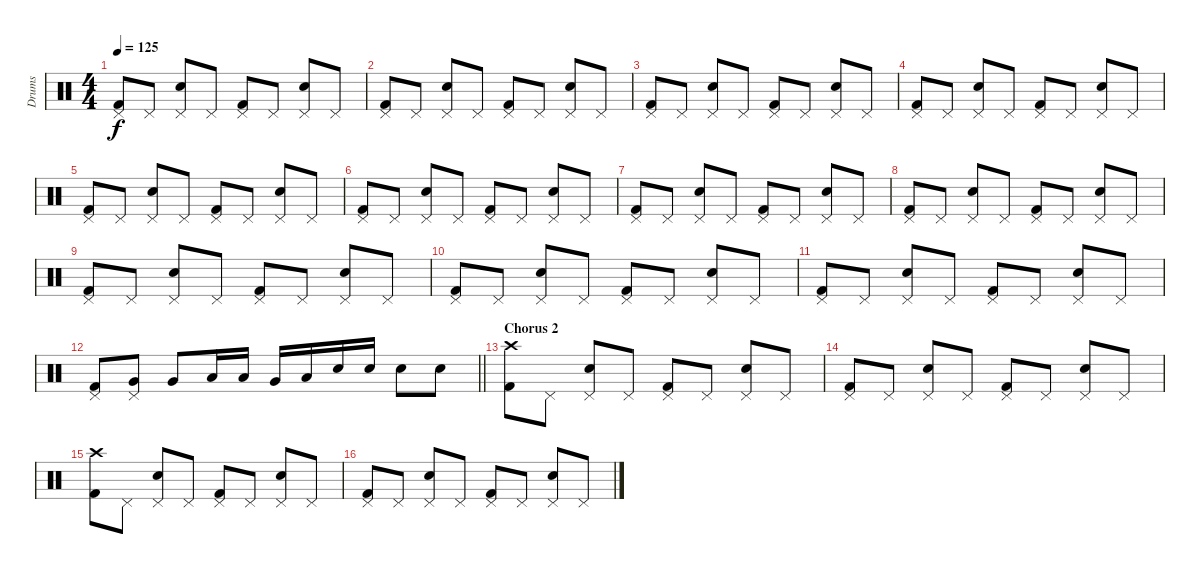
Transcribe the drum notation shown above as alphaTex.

\track ("Drums" "Drums") {instrument percussion}
\staff {score}
\articulation defaults
\ts (4 4)
\tempo 125
\clef neutral
\ks c
("Pedal Hi-Hat (hit)" "Kick (hit) 2").8{dy f} "Pedal Hi-Hat (hit)".8 ("Pedal Hi-Hat (hit)" "Snare (hit) 2").8 "Pedal Hi-Hat (hit)".8 ("Pedal Hi-Hat (hit)" "Kick (hit) 2").8 "Pedal Hi-Hat (hit)".8 ("Pedal Hi-Hat (hit)" "Snare (hit) 2").8 "Pedal Hi-Hat (hit)".8 |
("Pedal Hi-Hat (hit)" "Kick (hit) 2").8 "Pedal Hi-Hat (hit)".8 ("Pedal Hi-Hat (hit)" "Snare (hit) 2").8 "Pedal Hi-Hat (hit)".8 ("Pedal Hi-Hat (hit)" "Kick (hit) 2").8 "Pedal Hi-Hat (hit)".8 ("Pedal Hi-Hat (hit)" "Snare (hit) 2").8 "Pedal Hi-Hat (hit)".8 |
("Pedal Hi-Hat (hit)" "Kick (hit) 2").8 "Pedal Hi-Hat (hit)".8 ("Pedal Hi-Hat (hit)" "Snare (hit) 2").8 "Pedal Hi-Hat (hit)".8 ("Pedal Hi-Hat (hit)" "Kick (hit) 2").8 "Pedal Hi-Hat (hit)".8 ("Pedal Hi-Hat (hit)" "Snare (hit) 2").8 "Pedal Hi-Hat (hit)".8 |
("Pedal Hi-Hat (hit)" "Kick (hit) 2").8 "Pedal Hi-Hat (hit)".8 ("Pedal Hi-Hat (hit)" "Snare (hit) 2").8 "Pedal Hi-Hat (hit)".8 ("Pedal Hi-Hat (hit)" "Kick (hit) 2").8 "Pedal Hi-Hat (hit)".8 ("Pedal Hi-Hat (hit)" "Snare (hit) 2").8 "Pedal Hi-Hat (hit)".8 |
("Pedal Hi-Hat (hit)" "Kick (hit) 2").8 "Pedal Hi-Hat (hit)".8 ("Pedal Hi-Hat (hit)" "Snare (hit) 2").8 "Pedal Hi-Hat (hit)".8 ("Pedal Hi-Hat (hit)" "Kick (hit) 2").8 "Pedal Hi-Hat (hit)".8 ("Pedal Hi-Hat (hit)" "Snare (hit) 2").8 "Pedal Hi-Hat (hit)".8 |
("Pedal Hi-Hat (hit)" "Kick (hit) 2").8 "Pedal Hi-Hat (hit)".8 ("Pedal Hi-Hat (hit)" "Snare (hit) 2").8 "Pedal Hi-Hat (hit)".8 ("Pedal Hi-Hat (hit)" "Kick (hit) 2").8 "Pedal Hi-Hat (hit)".8 ("Pedal Hi-Hat (hit)" "Snare (hit) 2").8 "Pedal Hi-Hat (hit)".8 |
("Pedal Hi-Hat (hit)" "Kick (hit) 2").8 "Pedal Hi-Hat (hit)".8 ("Pedal Hi-Hat (hit)" "Snare (hit) 2").8 "Pedal Hi-Hat (hit)".8 ("Pedal Hi-Hat (hit)" "Kick (hit) 2").8 "Pedal Hi-Hat (hit)".8 ("Pedal Hi-Hat (hit)" "Snare (hit) 2").8 "Pedal Hi-Hat (hit)".8 |
("Pedal Hi-Hat (hit)" "Kick (hit) 2").8 "Pedal Hi-Hat (hit)".8 ("Pedal Hi-Hat (hit)" "Snare (hit) 2").8 "Pedal Hi-Hat (hit)".8 ("Pedal Hi-Hat (hit)" "Kick (hit) 2").8 "Pedal Hi-Hat (hit)".8 ("Pedal Hi-Hat (hit)" "Snare (hit) 2").8 "Pedal Hi-Hat (hit)".8 |
("Pedal Hi-Hat (hit)" "Kick (hit) 2").8 "Pedal Hi-Hat (hit)".8 ("Pedal Hi-Hat (hit)" "Snare (hit) 2").8 "Pedal Hi-Hat (hit)".8 ("Pedal Hi-Hat (hit)" "Kick (hit) 2").8 "Pedal Hi-Hat (hit)".8 ("Pedal Hi-Hat (hit)" "Snare (hit) 2").8 "Pedal Hi-Hat (hit)".8 |
("Pedal Hi-Hat (hit)" "Kick (hit) 2").8 "Pedal Hi-Hat (hit)".8 ("Pedal Hi-Hat (hit)" "Snare (hit) 2").8 "Pedal Hi-Hat (hit)".8 ("Pedal Hi-Hat (hit)" "Kick (hit) 2").8 "Pedal Hi-Hat (hit)".8 ("Pedal Hi-Hat (hit)" "Snare (hit) 2").8 "Pedal Hi-Hat (hit)".8 |
("Pedal Hi-Hat (hit)" "Kick (hit) 2").8 "Pedal Hi-Hat (hit)".8 ("Pedal Hi-Hat (hit)" "Snare (hit) 2").8 "Pedal Hi-Hat (hit)".8 ("Pedal Hi-Hat (hit)" "Kick (hit) 2").8 "Pedal Hi-Hat (hit)".8 ("Pedal Hi-Hat (hit)" "Snare (hit) 2").8 "Pedal Hi-Hat (hit)".8 |
\barLineRight lightlight
("Pedal Hi-Hat (hit)" "Kick (hit) 2").8 ("Pedal Hi-Hat (hit)" "Very Low Tom (hit)").8 "Very Low Tom (hit)".8 "Low Floor Tom (hit)".16 "Low Floor Tom (hit)".16 "Very Low Tom (hit)".16 "Low Tom (hit)".16 "Snare (hit) 2".16 "Snare (hit) 2".16 "Snare (hit) 2".8 "Snare (hit) 2".8 |
\section ("" "Chorus 2")
("Crash high (hit)" "Kick (hit) 2").8 "Pedal Hi-Hat (hit)".8 ("Pedal Hi-Hat (hit)" "Snare (hit) 2").8 "Pedal Hi-Hat (hit)".8 ("Pedal Hi-Hat (hit)" "Kick (hit) 2").8 "Pedal Hi-Hat (hit)".8 ("Pedal Hi-Hat (hit)" "Snare (hit) 2").8 "Pedal Hi-Hat (hit)".8 |
("Pedal Hi-Hat (hit)" "Kick (hit) 2").8 "Pedal Hi-Hat (hit)".8 ("Pedal Hi-Hat (hit)" "Snare (hit) 2").8 "Pedal Hi-Hat (hit)".8 ("Pedal Hi-Hat (hit)" "Kick (hit) 2").8 "Pedal Hi-Hat (hit)".8 ("Pedal Hi-Hat (hit)" "Snare (hit) 2").8 "Pedal Hi-Hat (hit)".8 |
("Crash high (hit)" "Kick (hit) 2").8 "Pedal Hi-Hat (hit)".8 ("Pedal Hi-Hat (hit)" "Snare (hit) 2").8 "Pedal Hi-Hat (hit)".8 ("Pedal Hi-Hat (hit)" "Kick (hit) 2").8 "Pedal Hi-Hat (hit)".8 ("Pedal Hi-Hat (hit)" "Snare (hit) 2").8 "Pedal Hi-Hat (hit)".8 |
("Pedal Hi-Hat (hit)" "Kick (hit) 2").8 "Pedal Hi-Hat (hit)".8 ("Pedal Hi-Hat (hit)" "Snare (hit) 2").8 "Pedal Hi-Hat (hit)".8 ("Pedal Hi-Hat (hit)" "Kick (hit) 2").8 "Pedal Hi-Hat (hit)".8 ("Pedal Hi-Hat (hit)" "Snare (hit) 2").8 "Pedal Hi-Hat (hit)".8
